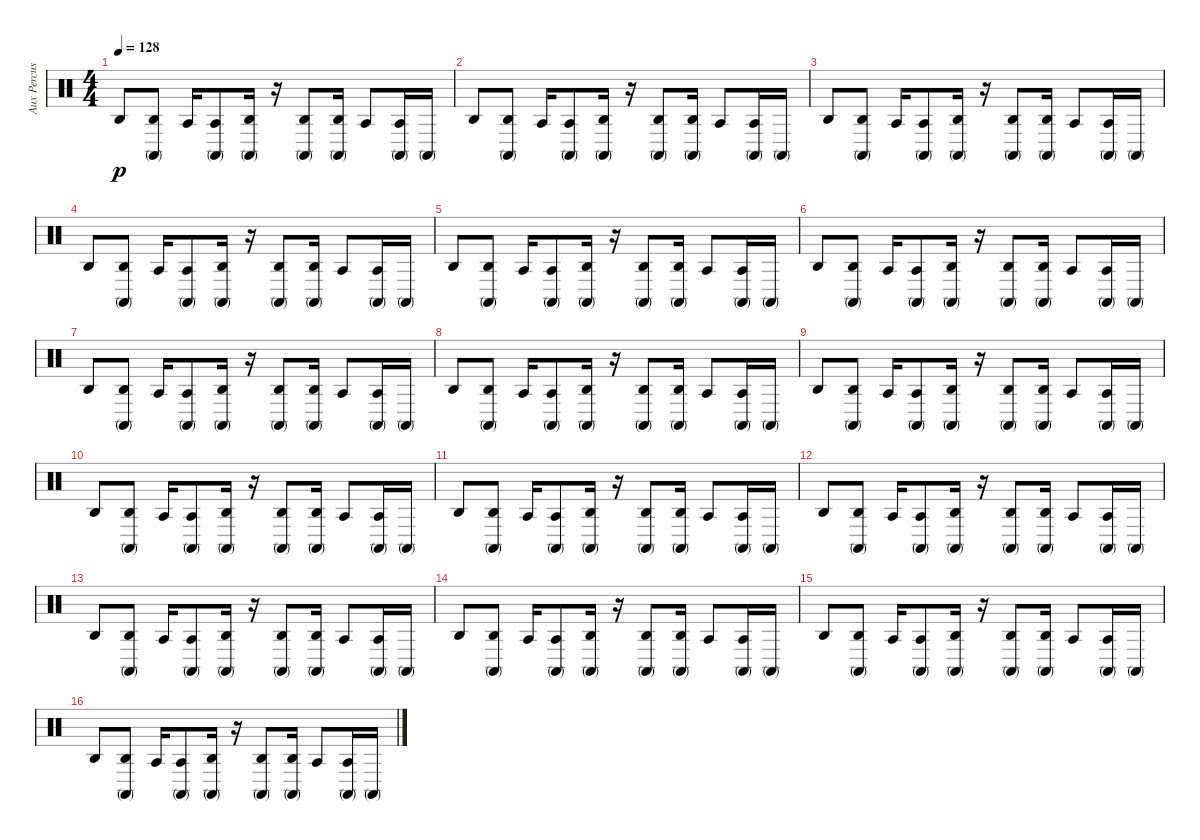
\track ("Aux Percussion" "Aux Percus") {instrument percussion}
\staff {score}
\articulation defaults
\ts (4 4)
\tempo 128
\clef neutral
\ks c "Agogo high (hit)".8{dy p}
("Conga high (mute)" "Agogo high (hit)").8 "Agogo tow (hit)".16 ("Conga high (mute)" "Agogo tow (hit)").8 ("Agogo high (hit)" "Conga high (mute)").16 r.16 ("Agogo high (hit)" "Conga high (mute)").8 ("Conga high (mute)" "Agogo high (hit)").16 "Agogo tow (hit)".8 ("Agogo tow (hit)" "Conga high (mute)").16 "Conga high (mute)".16 |
"Agogo high (hit)".8 ("Conga high (mute)" "Agogo high (hit)").8 "Agogo tow (hit)".16 ("Conga high (mute)" "Agogo tow (hit)").8 ("Agogo high (hit)" "Conga high (mute)").16 r.16 ("Agogo high (hit)" "Conga high (mute)").8 ("Conga high (mute)" "Agogo high (hit)").16 "Agogo tow (hit)".8 ("Agogo tow (hit)" "Conga high (mute)").16 "Conga high (mute)".16 |
"Agogo high (hit)".8 ("Conga high (mute)" "Agogo high (hit)").8 "Agogo tow (hit)".16 ("Conga high (mute)" "Agogo tow (hit)").8 ("Agogo high (hit)" "Conga high (mute)").16 r.16 ("Agogo high (hit)" "Conga high (mute)").8 ("Conga high (mute)" "Agogo high (hit)").16 "Agogo tow (hit)".8 ("Agogo tow (hit)" "Conga high (mute)").16 "Conga high (mute)".16 |
"Agogo high (hit)".8 ("Conga high (mute)" "Agogo high (hit)").8 "Agogo tow (hit)".16 ("Conga high (mute)" "Agogo tow (hit)").8 ("Agogo high (hit)" "Conga high (mute)").16 r.16 ("Agogo high (hit)" "Conga high (mute)").8 ("Conga high (mute)" "Agogo high (hit)").16 "Agogo tow (hit)".8 ("Agogo tow (hit)" "Conga high (mute)").16 "Conga high (mute)".16 |
"Agogo high (hit)".8 ("Agogo high (hit)" "Conga high (mute)").8 "Agogo tow (hit)".16 ("Agogo tow (hit)" "Conga high (mute)").8 ("Conga high (mute)" "Agogo high (hit)").16 r.16 ("Conga high (mute)" "Agogo high (hit)").8 ("Agogo high (hit)" "Conga high (mute)").16 "Agogo tow (hit)".8 ("Conga high (mute)" "Agogo tow (hit)").16 "Conga high (mute)".16 |
"Agogo high (hit)".8 ("Agogo high (hit)" "Conga high (mute)").8 "Agogo tow (hit)".16 ("Agogo tow (hit)" "Conga high (mute)").8 ("Conga high (mute)" "Agogo high (hit)").16 r.16 ("Conga high (mute)" "Agogo high (hit)").8 ("Agogo high (hit)" "Conga high (mute)").16 "Agogo tow (hit)".8 ("Conga high (mute)" "Agogo tow (hit)").16 "Conga high (mute)".16 |
"Agogo high (hit)".8 ("Agogo high (hit)" "Conga high (mute)").8 "Agogo tow (hit)".16 ("Agogo tow (hit)" "Conga high (mute)").8 ("Conga high (mute)" "Agogo high (hit)").16 r.16 ("Conga high (mute)" "Agogo high (hit)").8 ("Agogo high (hit)" "Conga high (mute)").16 "Agogo tow (hit)".8 ("Conga high (mute)" "Agogo tow (hit)").16 "Conga high (mute)".16 |
"Agogo high (hit)".8 ("Agogo high (hit)" "Conga high (mute)").8 "Agogo tow (hit)".16 ("Agogo tow (hit)" "Conga high (mute)").8 ("Conga high (mute)" "Agogo high (hit)").16 r.16 ("Conga high (mute)" "Agogo high (hit)").8 ("Agogo high (hit)" "Conga high (mute)").16 "Agogo tow (hit)".8 ("Conga high (mute)" "Agogo tow (hit)").16 "Conga high (mute)".16 |
"Agogo high (hit)".8 ("Agogo high (hit)" "Conga high (mute)").8 "Agogo tow (hit)".16 ("Agogo tow (hit)" "Conga high (mute)").8 ("Conga high (mute)" "Agogo high (hit)").16 r.16 ("Conga high (mute)" "Agogo high (hit)").8 ("Agogo high (hit)" "Conga high (mute)").16 "Agogo tow (hit)".8 ("Conga high (mute)" "Agogo tow (hit)").16 "Conga high (mute)".16 |
"Agogo high (hit)".8 ("Conga high (mute)" "Agogo high (hit)").8 "Agogo tow (hit)".16 ("Agogo tow (hit)" "Conga high (mute)").8 ("Agogo high (hit)" "Conga high (mute)").16 r.16 ("Agogo high (hit)" "Conga high (mute)").8 ("Conga high (mute)" "Agogo high (hit)").16 "Agogo tow (hit)".8 ("Agogo tow (hit)" "Conga high (mute)").16 "Conga high (mute)".16 |
"Agogo high (hit)".8 ("Conga high (mute)" "Agogo high (hit)").8 "Agogo tow (hit)".16 ("Conga high (mute)" "Agogo tow (hit)").8 ("Agogo high (hit)" "Conga high (mute)").16 r.16 ("Agogo high (hit)" "Conga high (mute)").8 ("Conga high (mute)" "Agogo high (hit)").16 "Agogo tow (hit)".8 ("Agogo tow (hit)" "Conga high (mute)").16 "Conga high (mute)".16 |
"Agogo high (hit)".8 ("Agogo high (hit)" "Conga high (mute)").8 "Agogo tow (hit)".16 ("Conga high (mute)" "Agogo tow (hit)").8 ("Conga high (mute)" "Agogo high (hit)").16 r.16 ("Conga high (mute)" "Agogo high (hit)").8 ("Agogo high (hit)" "Conga high (mute)").16 "Agogo tow (hit)".8 ("Conga high (mute)" "Agogo tow (hit)").16 "Conga high (mute)".16 |
"Agogo high (hit)".8 ("Agogo high (hit)" "Conga high (mute)").8 "Agogo tow (hit)".16 ("Agogo tow (hit)" "Conga high (mute)").8 ("Conga high (mute)" "Agogo high (hit)").16 r.16 ("Conga high (mute)" "Agogo high (hit)").8 ("Agogo high (hit)" "Conga high (mute)").16 "Agogo tow (hit)".8 ("Conga high (mute)" "Agogo tow (hit)").16 "Conga high (mute)".16 |
"Agogo high (hit)".8 ("Conga high (mute)" "Agogo high (hit)").8 "Agogo tow (hit)".16 ("Agogo tow (hit)" "Conga high (mute)").8 ("Agogo high (hit)" "Conga high (mute)").16 r.16 ("Agogo high (hit)" "Conga high (mute)").8 ("Conga high (mute)" "Agogo high (hit)").16 "Agogo tow (hit)".8 ("Agogo tow (hit)" "Conga high (mute)").16 "Conga high (mute)".16 |
"Agogo high (hit)".8 ("Conga high (mute)" "Agogo high (hit)").8 "Agogo tow (hit)".16 ("Conga high (mute)" "Agogo tow (hit)").8 ("Agogo high (hit)" "Conga high (mute)").16 r.16 ("Agogo high (hit)" "Conga high (mute)").8 ("Conga high (mute)" "Agogo high (hit)").16 "Agogo tow (hit)".8 ("Agogo tow (hit)" "Conga high (mute)").16 "Conga high (mute)".16 |
"Agogo high (hit)".8 ("Agogo high (hit)" "Conga high (mute)").8 "Agogo tow (hit)".16 ("Conga high (mute)" "Agogo tow (hit)").8 ("Conga high (mute)" "Agogo high (hit)").16 r.16 ("Conga high (mute)" "Agogo high (hit)").8 ("Agogo high (hit)" "Conga high (mute)").16 "Agogo tow (hit)".8 ("Conga high (mute)" "Agogo tow (hit)").16 "Conga high (mute)".16
